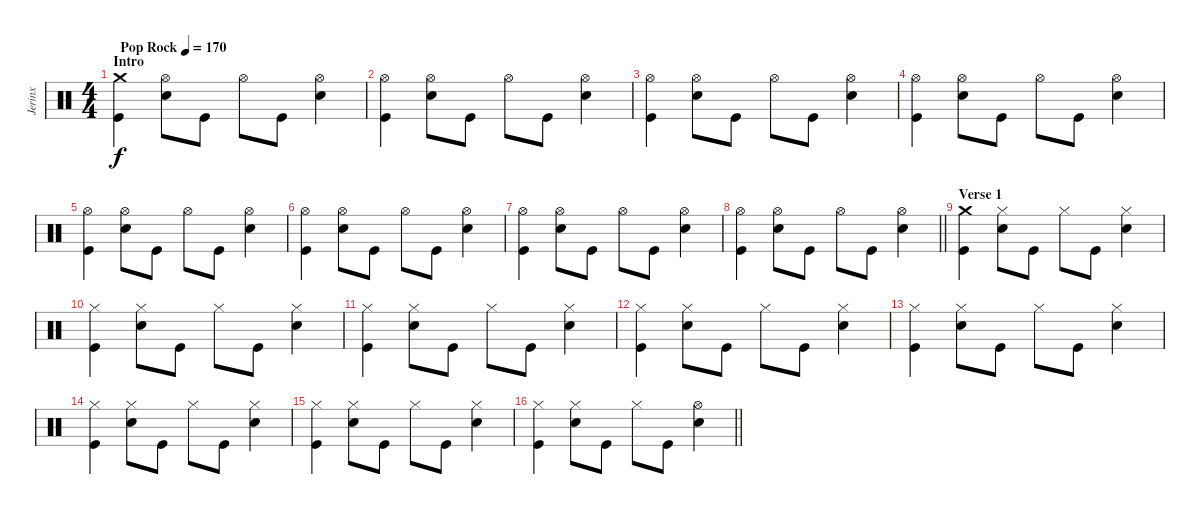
\track ("Jerinx" "Jerinx") {instrument percussion}
\staff {score}
\articulation defaults
\ts (4 4)
\section ("" "Intro")
\tempo (170 "Pop Rock")
\clef neutral
\ks c
("Kick (hit)" "Crash medium (hit)").4{dy f} ("Snare (hit) 2" "Hi-Hat (open)").8 "Kick (hit)".8 "Hi-Hat (open)".8 "Kick (hit)".8 ("Snare (hit) 2" "Hi-Hat (open)").4 |
("Kick (hit)" "Hi-Hat (open)").4 ("Snare (hit) 2" "Hi-Hat (open)").8 "Kick (hit)".8 "Hi-Hat (open)".8 "Kick (hit)".8 ("Snare (hit) 2" "Hi-Hat (open)").4 |
("Kick (hit)" "Hi-Hat (open)").4 ("Snare (hit) 2" "Hi-Hat (open)").8 "Kick (hit)".8 "Hi-Hat (open)".8 "Kick (hit)".8 ("Snare (hit) 2" "Hi-Hat (open)").4 |
("Kick (hit)" "Hi-Hat (open)").4 ("Snare (hit) 2" "Hi-Hat (open)").8 "Kick (hit)".8 "Hi-Hat (open)".8 "Kick (hit)".8 ("Snare (hit) 2" "Hi-Hat (open)").4 |
("Kick (hit)" "Hi-Hat (open)").4 ("Snare (hit) 2" "Hi-Hat (open)").8 "Kick (hit)".8 "Hi-Hat (open)".8 "Kick (hit)".8 ("Snare (hit) 2" "Hi-Hat (open)").4 |
("Kick (hit)" "Hi-Hat (open)").4 ("Snare (hit) 2" "Hi-Hat (open)").8 "Kick (hit)".8 "Hi-Hat (open)".8 "Kick (hit)".8 ("Snare (hit) 2" "Hi-Hat (open)").4 |
("Kick (hit)" "Hi-Hat (open)").4 ("Snare (hit) 2" "Hi-Hat (open)").8 "Kick (hit)".8 "Hi-Hat (open)".8 "Kick (hit)".8 ("Snare (hit) 2" "Hi-Hat (open)").4 |
\barLineRight lightlight
("Kick (hit)" "Hi-Hat (open)").4 ("Snare (hit) 2" "Hi-Hat (open)").8 "Kick (hit)".8 "Hi-Hat (open)".8 "Kick (hit)".8 ("Snare (hit) 2" "Hi-Hat (open)").4 |
\section ("" "Verse 1")
("Kick (hit)" "Crash medium (hit)").4 ("Snare (hit) 2" "Hi-Hat (closed)").8 "Kick (hit)".8 "Hi-Hat (closed)".8 "Kick (hit)".8 ("Snare (hit) 2" "Hi-Hat (closed)").4 |
("Kick (hit)" "Hi-Hat (closed)").4 ("Snare (hit) 2" "Hi-Hat (closed)").8 "Kick (hit)".8 "Hi-Hat (closed)".8 "Kick (hit)".8 ("Snare (hit) 2" "Hi-Hat (closed)").4 |
("Kick (hit)" "Hi-Hat (closed)").4 ("Snare (hit) 2" "Hi-Hat (closed)").8 "Kick (hit)".8 "Hi-Hat (closed)".8 "Kick (hit)".8 ("Snare (hit) 2" "Hi-Hat (closed)").4 |
("Kick (hit)" "Hi-Hat (closed)").4 ("Snare (hit) 2" "Hi-Hat (closed)").8 "Kick (hit)".8 "Hi-Hat (closed)".8 "Kick (hit)".8 ("Snare (hit) 2" "Hi-Hat (closed)").4 |
("Kick (hit)" "Hi-Hat (closed)").4 ("Snare (hit) 2" "Hi-Hat (closed)").8 "Kick (hit)".8 "Hi-Hat (closed)".8 "Kick (hit)".8 ("Snare (hit) 2" "Hi-Hat (closed)").4 |
("Kick (hit)" "Hi-Hat (closed)").4 ("Snare (hit) 2" "Hi-Hat (closed)").8 "Kick (hit)".8 "Hi-Hat (closed)".8 "Kick (hit)".8 ("Snare (hit) 2" "Hi-Hat (closed)").4 |
("Kick (hit)" "Hi-Hat (closed)").4 ("Snare (hit) 2" "Hi-Hat (closed)").8 "Kick (hit)".8 "Hi-Hat (closed)".8 "Kick (hit)".8 ("Snare (hit) 2" "Hi-Hat (closed)").4 |
\barLineRight lightlight
("Kick (hit)" "Hi-Hat (closed)").4 ("Snare (hit) 2" "Hi-Hat (closed)").8 "Kick (hit)".8 "Hi-Hat (closed)".8 "Kick (hit)".8 ("Snare (hit) 2" "Hi-Hat (open)").4
